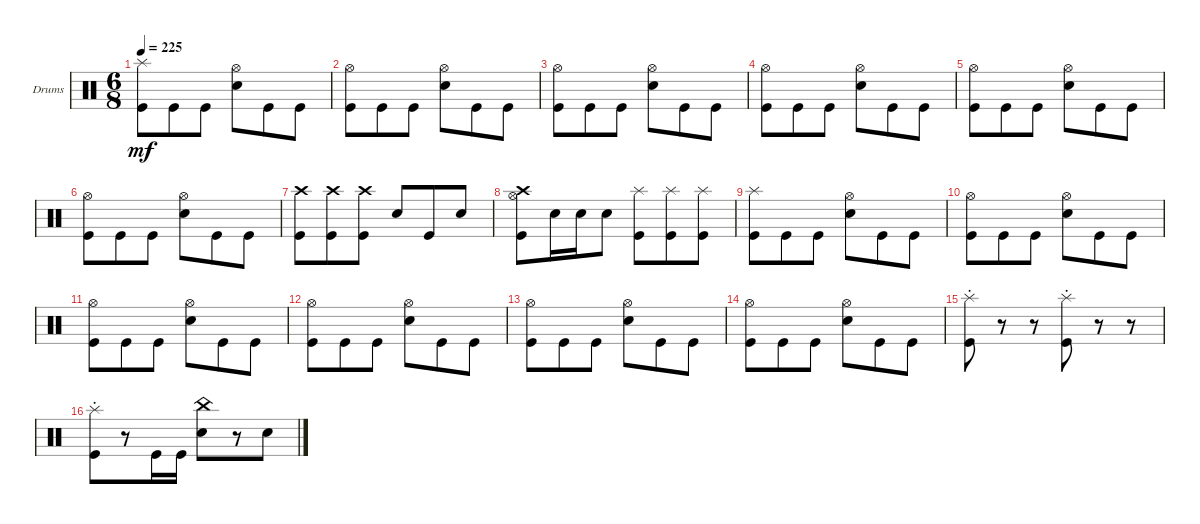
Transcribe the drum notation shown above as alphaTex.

\bracketExtendMode groupsimilarinstruments
\firstSystemTrackNameOrientation horizontal
\otherSystemsTrackNameOrientation horizontal
\track ("Drumkit" "Drums") {solo instrument percussion}
\staff {score}
\articulation defaults
\ts (6 8)
\tempo 225
\clef neutral
\ks c
("Kick (hit)" "Splash (hit)").8{dy mf} "Kick (hit)".8 "Kick (hit)".8 ("Snare (hit) 2" "Hi-Hat (open)").8 "Kick (hit)".8 "Kick (hit)".8 |
("Kick (hit)" "Hi-Hat (open)").8 "Kick (hit)".8 "Kick (hit)".8 ("Snare (hit) 2" "Hi-Hat (open)").8 "Kick (hit)".8 "Kick (hit)".8 |
("Kick (hit)" "Hi-Hat (open)").8 "Kick (hit)".8 "Kick (hit)".8 ("Snare (hit) 2" "Hi-Hat (open)").8 "Kick (hit)".8 "Kick (hit)".8 |
("Kick (hit)" "Hi-Hat (open)").8 "Kick (hit)".8 "Kick (hit)".8 ("Snare (hit) 2" "Hi-Hat (open)").8 "Kick (hit)".8 "Kick (hit)".8 |
("Kick (hit)" "Hi-Hat (open)").8 "Kick (hit)".8 "Kick (hit)".8 ("Snare (hit) 2" "Hi-Hat (open)").8 "Kick (hit)".8 "Kick (hit)".8 |
("Kick (hit)" "Hi-Hat (open)").8 "Kick (hit)".8 "Kick (hit)".8 ("Snare (hit) 2" "Hi-Hat (open)").8 "Kick (hit)".8 "Kick (hit)".8 |
("Kick (hit)" "Crash high (hit)").8 ("Kick (hit)" "Crash high (hit)").8 ("Kick (hit)" "Crash high (hit)").8 "Snare (hit) 2".8 "Kick (hit)".8 "Snare (hit) 2".8 |
("Kick (hit)" "Hi-Hat (open)" "Crash high (hit)").8 "Snare (hit) 2".16 "Snare (hit) 2".16 "Snare (hit) 2".8 ("Kick (hit)" "Splash (hit)").8 ("Kick (hit)" "Splash (hit)").8 ("Kick (hit)" "Splash (hit)").8 |
("Kick (hit)" "Splash (hit)").8 "Kick (hit)".8 "Kick (hit)".8 ("Snare (hit) 2" "Hi-Hat (open)").8 "Kick (hit)".8 "Kick (hit)".8 |
("Kick (hit)" "Hi-Hat (open)").8 "Kick (hit)".8 "Kick (hit)".8 ("Snare (hit) 2" "Hi-Hat (open)").8 "Kick (hit)".8 "Kick (hit)".8 |
("Kick (hit)" "Hi-Hat (open)").8 "Kick (hit)".8 "Kick (hit)".8 ("Snare (hit) 2" "Hi-Hat (open)").8 "Kick (hit)".8 "Kick (hit)".8 |
("Kick (hit)" "Hi-Hat (open)").8 "Kick (hit)".8 "Kick (hit)".8 ("Snare (hit) 2" "Hi-Hat (open)").8 "Kick (hit)".8 "Kick (hit)".8 |
("Kick (hit)" "Hi-Hat (open)").8 "Kick (hit)".8 "Kick (hit)".8 ("Snare (hit) 2" "Hi-Hat (open)").8 "Kick (hit)".8 "Kick (hit)".8 |
("Kick (hit)" "Hi-Hat (open)").8 "Kick (hit)".8 "Kick (hit)".8 ("Snare (hit) 2" "Hi-Hat (open)").8 "Kick (hit)".8 "Kick (hit)".8 |
("Kick (hit)" "Splash (hit)"{st}).8 r.8 r.8 ("Kick (hit)" "Splash (hit)"{st}).8 r.8 r.8 |
("Kick (hit)" "Splash (hit)"{st}).8 r.8 "Kick (hit)".16 "Kick (hit)".16 ("Snare (hit) 2" "China (hit)").8 r.8 "Snare (hit) 2".8
